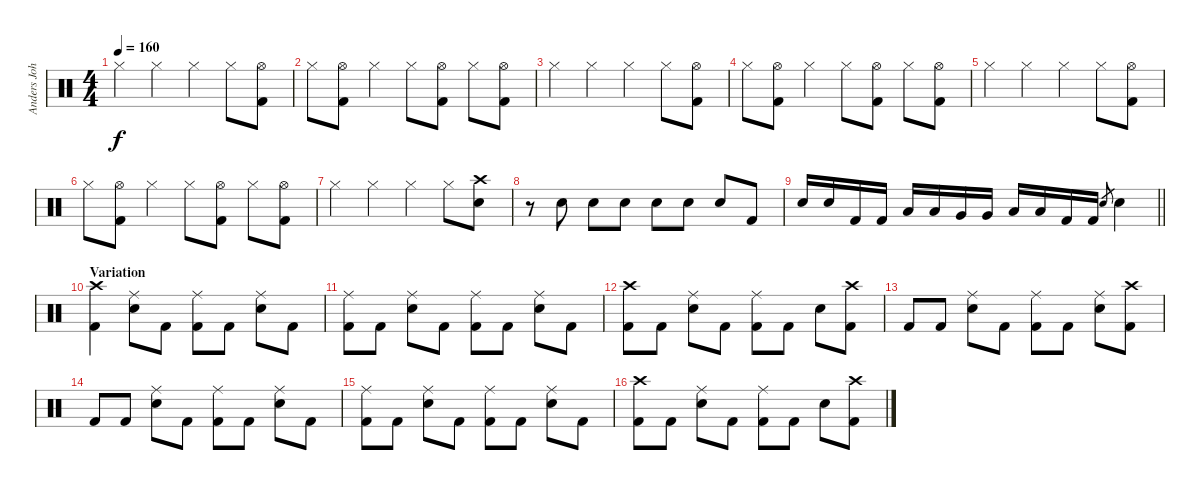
\track ("Anders Johansson" "Anders Joh") {instrument percussion}
\staff {score}
\articulation defaults
\ts (4 4)
\tempo 160
\clef neutral
\ks c "Hi-Hat (closed)".4{dy f} "Hi-Hat (closed)".4 "Hi-Hat (closed)".4 "Hi-Hat (closed)".8
("Hi-Hat (open)" "Kick (hit) 2").8 |
"Hi-Hat (closed)".8 ("Hi-Hat (open)" "Kick (hit) 2").8 "Hi-Hat (closed)".4 "Hi-Hat (closed)".8 ("Hi-Hat (open)" "Kick (hit) 2").8 "Hi-Hat (closed)".8 ("Hi-Hat (open)" "Kick (hit) 2").8 |
"Hi-Hat (closed)".4 "Hi-Hat (closed)".4 "Hi-Hat (closed)".4 "Hi-Hat (closed)".8 ("Hi-Hat (open)" "Kick (hit) 2").8 |
"Hi-Hat (closed)".8 ("Hi-Hat (open)" "Kick (hit) 2").8 "Hi-Hat (closed)".4 "Hi-Hat (closed)".8 ("Hi-Hat (open)" "Kick (hit) 2").8 "Hi-Hat (closed)".8 ("Hi-Hat (open)" "Kick (hit) 2").8 |
"Hi-Hat (closed)".4 "Hi-Hat (closed)".4 "Hi-Hat (closed)".4 "Hi-Hat (closed)".8 ("Hi-Hat (open)" "Kick (hit) 2").8 |
"Hi-Hat (closed)".8 ("Hi-Hat (open)" "Kick (hit) 2").8 "Hi-Hat (closed)".4 "Hi-Hat (closed)".8 ("Hi-Hat (open)" "Kick (hit) 2").8 "Hi-Hat (closed)".8 ("Hi-Hat (open)" "Kick (hit) 2").8 |
"Hi-Hat (closed)".4 "Hi-Hat (closed)".4 "Hi-Hat (closed)".4 "Hi-Hat (closed)".8 ("Crash high (hit)" "Snare (hit) 2").8 |
r.8 "Snare (hit) 2".8 "Snare (hit) 2".8 "Snare (hit) 2".8 "Snare (hit) 2".8 "Snare (hit) 2".8 "Snare (hit) 2".8 "Kick (hit) 2".8 |
\barLineRight lightlight "Snare (hit) 2".16 "Snare (hit) 2".16 "Kick (hit) 2".16 "Kick (hit) 2".16 "Low Tom (hit)".16 "Low Tom (hit)".16 "Very Low Tom (hit)".16 "Very Low Tom (hit)".16 "Low Floor Tom (hit)".16 "Low Floor Tom (hit)".16 "Kick (hit) 2".16 "Kick (hit) 2".16 "Snare (hit) 2".8{gr} "Snare (hit) 2".4
|
\section ("" "Variation")
("Crash high (hit)" "Kick (hit) 2").4 ("Ride (middle)" "Snare (hit) 2").8 "Kick (hit) 2".8 ("Ride (middle)" "Kick (hit) 2").8 "Kick (hit) 2".8 ("Ride (middle)" "Snare (hit) 2").8 "Kick (hit) 2".8 |
("Ride (middle)" "Kick (hit) 2").8 "Kick (hit) 2".8 ("Ride (middle)" "Snare (hit) 2").8 "Kick (hit) 2".8 ("Ride (middle)" "Kick (hit) 2").8 "Kick (hit) 2".8 ("Ride (middle)" "Snare (hit) 2").8 "Kick (hit) 2".8 |
("Crash high (hit)" "Kick (hit) 2").8 "Kick (hit) 2".8 ("Ride (middle)" "Snare (hit) 2").8 "Kick (hit) 2".8 ("Ride (middle)" "Kick (hit) 2").8 "Kick (hit) 2".8 "Snare (hit) 2".8 ("Crash high (hit)" "Kick (hit) 2").8 |
"Kick (hit) 2".8 "Kick (hit) 2".8 ("Ride (middle)" "Snare (hit) 2").8 "Kick (hit) 2".8 ("Ride (middle)" "Kick (hit) 2").8 "Kick (hit) 2".8 ("Ride (middle)" "Snare (hit) 2").8 ("Crash high (hit)" "Kick (hit) 2").8 |
"Kick (hit) 2".8 "Kick (hit) 2".8 ("Ride (middle)" "Snare (hit) 2").8 "Kick (hit) 2".8 ("Ride (middle)" "Kick (hit) 2").8 "Kick (hit) 2".8 ("Ride (middle)" "Snare (hit) 2").8 "Kick (hit) 2".8 |
("Ride (middle)" "Kick (hit) 2").8 "Kick (hit) 2".8 ("Ride (middle)" "Snare (hit) 2").8 "Kick (hit) 2".8 ("Ride (middle)" "Kick (hit) 2").8 "Kick (hit) 2".8 ("Ride (middle)" "Snare (hit) 2").8 "Kick (hit) 2".8 |
("Crash high (hit)" "Kick (hit) 2").8 "Kick (hit) 2".8 ("Ride (middle)" "Snare (hit) 2").8 "Kick (hit) 2".8 ("Ride (middle)" "Kick (hit) 2").8 "Kick (hit) 2".8 "Snare (hit) 2".8 ("Crash high (hit)" "Kick (hit) 2").8
